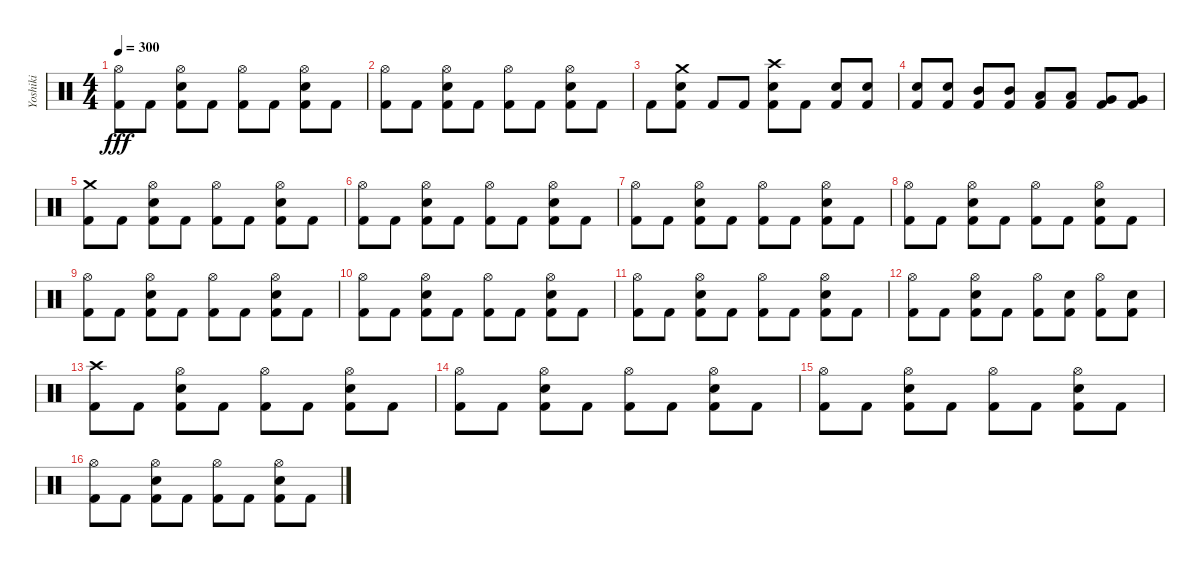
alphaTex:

\track ("Yoshiki" "Yoshiki") {instrument percussion}
\staff {score}
\articulation defaults
\ts (4 4)
\tempo 300
\clef neutral
\ks c
("Hi-Hat (open)" "Kick (hit) 2").8{dy fff} "Kick (hit) 2".8 ("Hi-Hat (open)" "Snare (hit) 2" "Kick (hit) 2").8 "Kick (hit) 2".8 ("Hi-Hat (open)" "Kick (hit) 2").8 "Kick (hit) 2".8 ("Hi-Hat (open)" "Snare (hit) 2" "Kick (hit) 2").8 "Kick (hit) 2".8 |
("Hi-Hat (open)" "Kick (hit) 2").8 "Kick (hit) 2".8 ("Hi-Hat (open)" "Snare (hit) 2" "Kick (hit) 2").8 "Kick (hit) 2".8 ("Hi-Hat (open)" "Kick (hit) 2").8 "Kick (hit) 2".8 ("Hi-Hat (open)" "Snare (hit) 2" "Kick (hit) 2").8 "Kick (hit) 2".8 |
"Kick (hit) 2".8 ("Crash medium (hit)" "Snare (hit) 2" "Kick (hit) 2").8 "Kick (hit) 2".8 "Kick (hit) 2".8 ("Crash high (hit)" "Snare (hit) 2" "Kick (hit) 2").8 "Kick (hit) 2".8 ("Snare (hit) 2" "Kick (hit) 2").8 ("Snare (hit) 2" "Kick (hit) 2").8 |
("Snare (hit) 2" "Kick (hit) 2").8 ("Snare (hit) 2" "Kick (hit) 2").8 ("Mid Tom (hit)" "Kick (hit) 2").8 ("Mid Tom (hit)" "Kick (hit) 2").8 ("Low Tom (hit)" "Kick (hit) 2").8 ("Low Tom (hit)" "Kick (hit) 2").8 ("Very Low Tom (hit)" "Kick (hit) 2").8 ("Very Low Tom (hit)" "Kick (hit) 2").8 |
("Crash medium (hit)" "Kick (hit) 2").8 "Kick (hit) 2".8 ("Hi-Hat (open)" "Snare (hit) 2" "Kick (hit) 2").8 "Kick (hit) 2".8 ("Hi-Hat (open)" "Kick (hit) 2").8 "Kick (hit) 2".8 ("Hi-Hat (open)" "Snare (hit) 2" "Kick (hit) 2").8 "Kick (hit) 2".8 |
("Hi-Hat (open)" "Kick (hit) 2").8 "Kick (hit) 2".8 ("Hi-Hat (open)" "Snare (hit) 2" "Kick (hit) 2").8 "Kick (hit) 2".8 ("Hi-Hat (open)" "Kick (hit) 2").8 "Kick (hit) 2".8 ("Hi-Hat (open)" "Snare (hit) 2" "Kick (hit) 2").8 "Kick (hit) 2".8 |
("Hi-Hat (open)" "Kick (hit) 2").8 "Kick (hit) 2".8 ("Hi-Hat (open)" "Snare (hit) 2" "Kick (hit) 2").8 "Kick (hit) 2".8 ("Hi-Hat (open)" "Kick (hit) 2").8 "Kick (hit) 2".8 ("Hi-Hat (open)" "Snare (hit) 2" "Kick (hit) 2").8 "Kick (hit) 2".8 |
("Hi-Hat (open)" "Kick (hit) 2").8 "Kick (hit) 2".8 ("Hi-Hat (open)" "Snare (hit) 2" "Kick (hit) 2").8 "Kick (hit) 2".8 ("Hi-Hat (open)" "Kick (hit) 2").8 "Kick (hit) 2".8 ("Hi-Hat (open)" "Snare (hit) 2" "Kick (hit) 2").8 "Kick (hit) 2".8 |
("Hi-Hat (open)" "Kick (hit) 2").8 "Kick (hit) 2".8 ("Hi-Hat (open)" "Snare (hit) 2" "Kick (hit) 2").8 "Kick (hit) 2".8 ("Hi-Hat (open)" "Kick (hit) 2").8 "Kick (hit) 2".8 ("Hi-Hat (open)" "Snare (hit) 2" "Kick (hit) 2").8 "Kick (hit) 2".8 |
("Hi-Hat (open)" "Kick (hit) 2").8 "Kick (hit) 2".8 ("Hi-Hat (open)" "Snare (hit) 2" "Kick (hit) 2").8 "Kick (hit) 2".8 ("Hi-Hat (open)" "Kick (hit) 2").8 "Kick (hit) 2".8 ("Hi-Hat (open)" "Snare (hit) 2" "Kick (hit) 2").8 "Kick (hit) 2".8 |
("Hi-Hat (open)" "Kick (hit) 2").8 "Kick (hit) 2".8 ("Hi-Hat (open)" "Snare (hit) 2" "Kick (hit) 2").8 "Kick (hit) 2".8 ("Hi-Hat (open)" "Kick (hit) 2").8 "Kick (hit) 2".8 ("Hi-Hat (open)" "Snare (hit) 2" "Kick (hit) 2").8 "Kick (hit) 2".8 |
("Hi-Hat (open)" "Kick (hit) 2").8 "Kick (hit) 2".8 ("Hi-Hat (open)" "Snare (hit) 2" "Kick (hit) 2").8 "Kick (hit) 2".8 ("Hi-Hat (open)" "Kick (hit) 2").8 ("Snare (hit) 2" "Kick (hit) 2").8 ("Hi-Hat (open)" "Kick (hit) 2").8 ("Snare (hit) 2" "Kick (hit) 2").8 |
("Crash high (hit)" "Kick (hit) 2").8 "Kick (hit) 2".8 ("Hi-Hat (open)" "Snare (hit) 2" "Kick (hit) 2").8 "Kick (hit) 2".8 ("Hi-Hat (open)" "Kick (hit) 2").8 "Kick (hit) 2".8 ("Hi-Hat (open)" "Snare (hit) 2" "Kick (hit) 2").8 "Kick (hit) 2".8 |
("Hi-Hat (open)" "Kick (hit) 2").8 "Kick (hit) 2".8 ("Hi-Hat (open)" "Snare (hit) 2" "Kick (hit) 2").8 "Kick (hit) 2".8 ("Hi-Hat (open)" "Kick (hit) 2").8 "Kick (hit) 2".8 ("Hi-Hat (open)" "Snare (hit) 2" "Kick (hit) 2").8 "Kick (hit) 2".8 |
("Hi-Hat (open)" "Kick (hit) 2").8 "Kick (hit) 2".8 ("Hi-Hat (open)" "Snare (hit) 2" "Kick (hit) 2").8 "Kick (hit) 2".8 ("Hi-Hat (open)" "Kick (hit) 2").8 "Kick (hit) 2".8 ("Hi-Hat (open)" "Snare (hit) 2" "Kick (hit) 2").8 "Kick (hit) 2".8 |
("Hi-Hat (open)" "Kick (hit) 2").8 "Kick (hit) 2".8 ("Hi-Hat (open)" "Snare (hit) 2" "Kick (hit) 2").8 "Kick (hit) 2".8 ("Hi-Hat (open)" "Kick (hit) 2").8 "Kick (hit) 2".8 ("Hi-Hat (open)" "Snare (hit) 2" "Kick (hit) 2").8 "Kick (hit) 2".8
